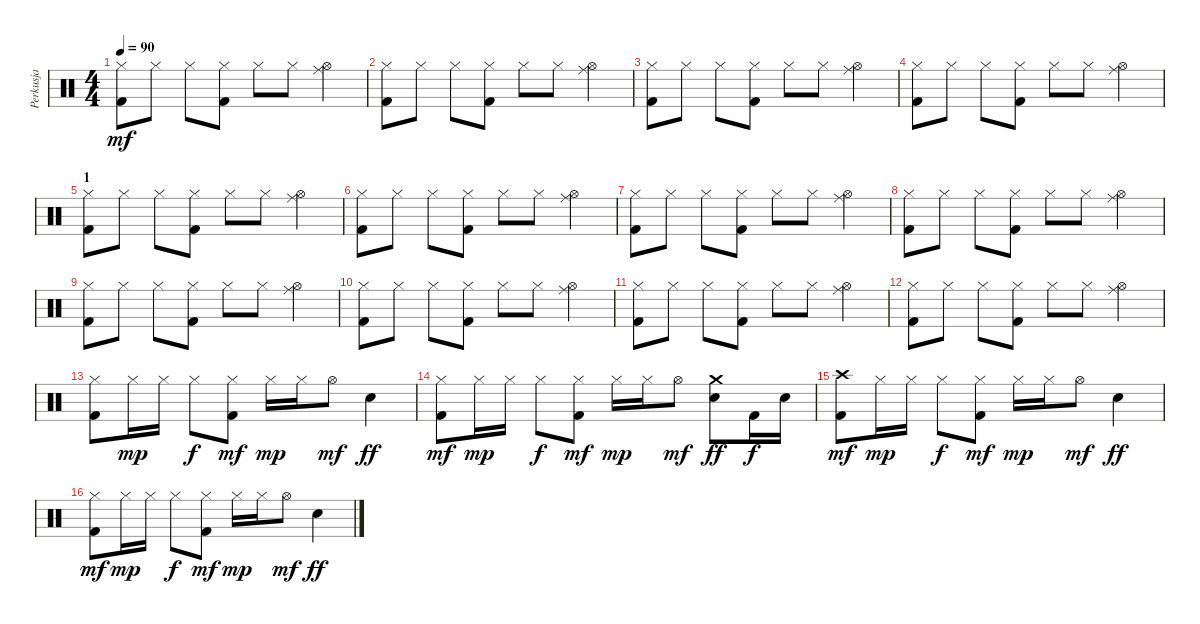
\track ("Perkusja" "Perkusja") {instrument percussion}
\staff {score}
\articulation defaults
\ts (4 4)
\tempo 90
\clef neutral
\ks c
("Hi-Hat (closed)" "Kick (hit) 2").8{dy mf} "Hi-Hat (closed)".8 "Hi-Hat (closed)".8 ("Hi-Hat (closed)" "Kick (hit) 2").8 "Hi-Hat (closed)".8 "Hi-Hat (closed)".8 ("Hi-Hat (open)" "Ride (middle)").4 |
("Hi-Hat (closed)" "Kick (hit) 2").8 "Hi-Hat (closed)".8 "Hi-Hat (closed)".8 ("Hi-Hat (closed)" "Kick (hit) 2").8 "Hi-Hat (closed)".8 "Hi-Hat (closed)".8 ("Hi-Hat (open)" "Ride (middle)").4 |
("Hi-Hat (closed)" "Kick (hit) 2").8 "Hi-Hat (closed)".8 "Hi-Hat (closed)".8 ("Hi-Hat (closed)" "Kick (hit) 2").8 "Hi-Hat (closed)".8 "Hi-Hat (closed)".8 ("Hi-Hat (open)" "Ride (middle)").4 |
("Hi-Hat (closed)" "Kick (hit) 2").8 "Hi-Hat (closed)".8 "Hi-Hat (closed)".8 ("Hi-Hat (closed)" "Kick (hit) 2").8 "Hi-Hat (closed)".8 "Hi-Hat (closed)".8 ("Hi-Hat (open)" "Ride (middle)").4 |
\section ("" "1")
("Hi-Hat (closed)" "Kick (hit) 2").8 "Hi-Hat (closed)".8 "Hi-Hat (closed)".8 ("Hi-Hat (closed)" "Kick (hit) 2").8 "Hi-Hat (closed)".8 "Hi-Hat (closed)".8 ("Hi-Hat (open)" "Ride (middle)").4 |
("Hi-Hat (closed)" "Kick (hit) 2").8 "Hi-Hat (closed)".8 "Hi-Hat (closed)".8 ("Hi-Hat (closed)" "Kick (hit) 2").8 "Hi-Hat (closed)".8 "Hi-Hat (closed)".8 ("Hi-Hat (open)" "Ride (middle)").4 |
("Hi-Hat (closed)" "Kick (hit) 2").8 "Hi-Hat (closed)".8 "Hi-Hat (closed)".8 ("Hi-Hat (closed)" "Kick (hit) 2").8 "Hi-Hat (closed)".8 "Hi-Hat (closed)".8 ("Hi-Hat (open)" "Ride (middle)").4 |
("Hi-Hat (closed)" "Kick (hit) 2").8 "Hi-Hat (closed)".8 "Hi-Hat (closed)".8 ("Hi-Hat (closed)" "Kick (hit) 2").8 "Hi-Hat (closed)".8 "Hi-Hat (closed)".8 ("Hi-Hat (open)" "Ride (middle)").4 |
("Hi-Hat (closed)" "Kick (hit) 2").8 "Hi-Hat (closed)".8 "Hi-Hat (closed)".8 ("Hi-Hat (closed)" "Kick (hit) 2").8 "Hi-Hat (closed)".8 "Hi-Hat (closed)".8 ("Hi-Hat (open)" "Ride (middle)").4 |
("Hi-Hat (closed)" "Kick (hit) 2").8 "Hi-Hat (closed)".8 "Hi-Hat (closed)".8 ("Hi-Hat (closed)" "Kick (hit) 2").8 "Hi-Hat (closed)".8 "Hi-Hat (closed)".8 ("Hi-Hat (open)" "Ride (middle)").4 |
("Hi-Hat (closed)" "Kick (hit) 2").8 "Hi-Hat (closed)".8 "Hi-Hat (closed)".8 ("Hi-Hat (closed)" "Kick (hit) 2").8 "Hi-Hat (closed)".8 "Hi-Hat (closed)".8 ("Hi-Hat (open)" "Ride (middle)").4 |
("Hi-Hat (closed)" "Kick (hit) 2").8 "Hi-Hat (closed)".8 "Hi-Hat (closed)".8 ("Hi-Hat (closed)" "Kick (hit) 2").8 "Hi-Hat (closed)".8 "Hi-Hat (closed)".8 ("Hi-Hat (open)" "Ride (middle)").4 |
("Hi-Hat (closed)" "Kick (hit) 2").8 "Hi-Hat (closed)".16{dy mp} "Hi-Hat (closed)".16 "Hi-Hat (closed)".8{dy f} ("Hi-Hat (closed)" "Kick (hit) 2").8{dy mf} "Hi-Hat (closed)".16{dy mp} "Hi-Hat (closed)".16 "Hi-Hat (open)".8{dy mf} "Snare (hit) 2".4{dy ff} |
("Hi-Hat (closed)" "Kick (hit) 2").8{dy mf} "Hi-Hat (closed)".16{dy mp} "Hi-Hat (closed)".16 "Hi-Hat (closed)".8{dy f} ("Hi-Hat (closed)" "Kick (hit) 2").8{dy mf} "Hi-Hat (closed)".16{dy mp} "Hi-Hat (closed)".16 "Hi-Hat (open)".8{dy mf} ("Crash medium (hit)" "Snare (hit) 2").8{dy ff} "Kick (hit) 2".16{dy f} "Snare (hit) 2".16 |
("Crash high (hit)" "Kick (hit) 2").8{dy mf} "Hi-Hat (closed)".16{dy mp} "Hi-Hat (closed)".16 "Hi-Hat (closed)".8{dy f} ("Hi-Hat (closed)" "Kick (hit) 2").8{dy mf} "Hi-Hat (closed)".16{dy mp} "Hi-Hat (closed)".16 "Hi-Hat (open)".8{dy mf} "Snare (hit) 2".4{dy ff} |
("Hi-Hat (closed)" "Kick (hit) 2").8{dy mf} "Hi-Hat (closed)".16{dy mp} "Hi-Hat (closed)".16 "Hi-Hat (closed)".8{dy f} ("Hi-Hat (closed)" "Kick (hit) 2").8{dy mf} "Hi-Hat (closed)".16{dy mp} "Hi-Hat (closed)".16 "Hi-Hat (open)".8{dy mf} "Snare (hit) 2".4{dy ff}
